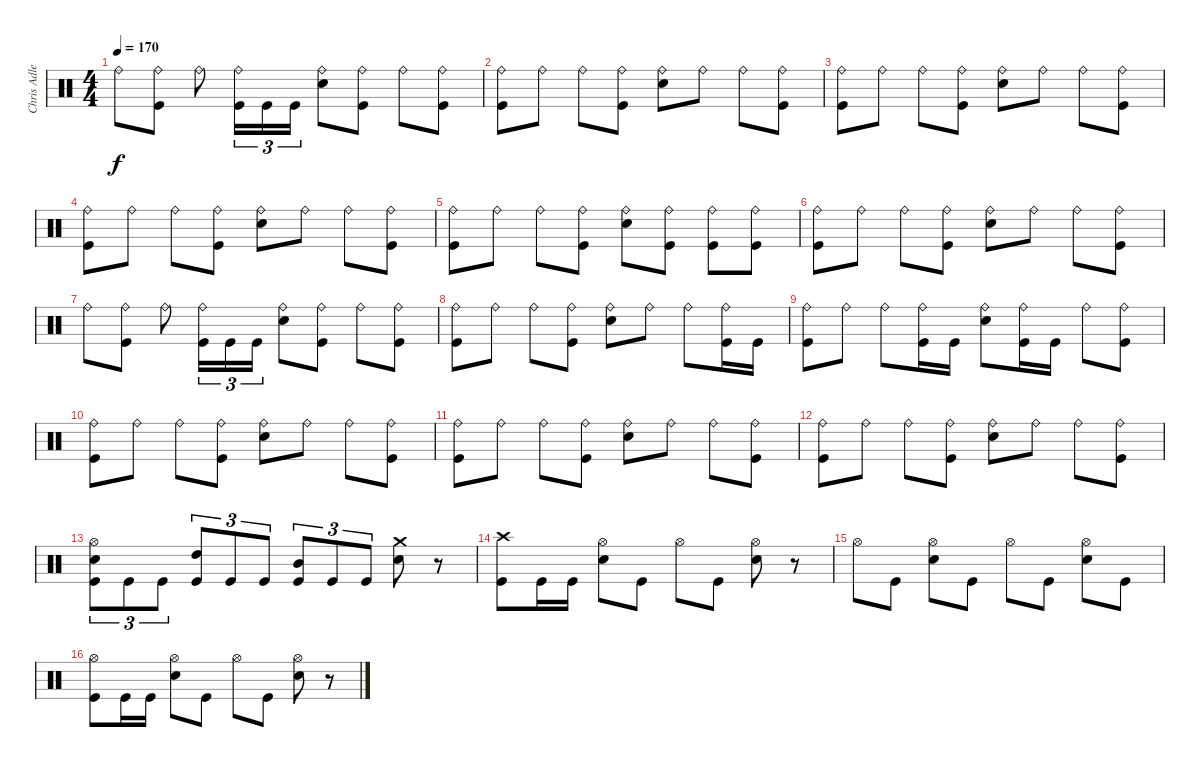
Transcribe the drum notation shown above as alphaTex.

\track ("Chris Adler" "Chris Adle") {instrument percussion}
\staff {score}
\articulation defaults
\ts (4 4)
\tempo 170
\clef neutral
\ks c "Ride (bell)".8{dy f}
("Ride (bell)" "Kick (hit)").8 "Ride (bell)".8 ("Ride (bell)" "Kick (hit)").16{tu (3 2)} "Kick (hit)".16{tu (3 2)} "Kick (hit)".16{tu (3 2)} ("Ride (bell)" "Electric Snare (hit)").8 ("Ride (bell)" "Kick (hit)").8 "Ride (bell)".8 ("Ride (bell)" "Kick (hit)").8 |
("Ride (bell)" "Kick (hit)").8 "Ride (bell)".8 "Ride (bell)".8 ("Ride (bell)" "Kick (hit)").8 ("Ride (bell)" "Electric Snare (hit)").8 "Ride (bell)".8 "Ride (bell)".8 ("Ride (bell)" "Kick (hit)").8 |
("Ride (bell)" "Kick (hit)").8 "Ride (bell)".8 "Ride (bell)".8 ("Ride (bell)" "Kick (hit)").8 ("Ride (bell)" "Electric Snare (hit)").8 "Ride (bell)".8 "Ride (bell)".8 ("Ride (bell)" "Kick (hit)").8 |
("Ride (bell)" "Kick (hit)").8 "Ride (bell)".8 "Ride (bell)".8 ("Ride (bell)" "Kick (hit)").8 ("Ride (bell)" "Electric Snare (hit)").8 "Ride (bell)".8 "Ride (bell)".8 ("Ride (bell)" "Kick (hit)").8 |
("Ride (bell)" "Kick (hit)").8 "Ride (bell)".8 "Ride (bell)".8 ("Ride (bell)" "Kick (hit)").8 ("Ride (bell)" "Electric Snare (hit)").8 ("Ride (bell)" "Kick (hit)").8 ("Ride (bell)" "Kick (hit)").8 ("Ride (bell)" "Kick (hit)").8 |
("Ride (bell)" "Kick (hit)").8 "Ride (bell)".8 "Ride (bell)".8 ("Ride (bell)" "Kick (hit)").8 ("Ride (bell)" "Electric Snare (hit)").8 "Ride (bell)".8 "Ride (bell)".8 ("Ride (bell)" "Kick (hit)").8 |
"Ride (bell)".8 ("Ride (bell)" "Kick (hit)").8 "Ride (bell)".8 ("Ride (bell)" "Kick (hit)").16{tu (3 2)} "Kick (hit)".16{tu (3 2)} "Kick (hit)".16{tu (3 2)} ("Ride (bell)" "Electric Snare (hit)").8 ("Ride (bell)" "Kick (hit)").8 "Ride (bell)".8 ("Ride (bell)" "Kick (hit)").8 |
("Ride (bell)" "Kick (hit)").8 "Ride (bell)".8 "Ride (bell)".8 ("Ride (bell)" "Kick (hit)").8 ("Ride (bell)" "Electric Snare (hit)").8 "Ride (bell)".8 "Ride (bell)".8 ("Ride (bell)" "Kick (hit)").16 "Kick (hit)".16 |
("Ride (bell)" "Kick (hit)").8 "Ride (bell)".8 "Ride (bell)".8 ("Ride (bell)" "Kick (hit)").16 "Kick (hit)".16 ("Ride (bell)" "Electric Snare (hit)").8 ("Ride (bell)" "Kick (hit)").16 "Kick (hit)".16 "Ride (bell)".8 ("Ride (bell)" "Kick (hit)").8 |
("Ride (bell)" "Kick (hit)").8 "Ride (bell)".8 "Ride (bell)".8 ("Ride (bell)" "Kick (hit)").8 ("Ride (bell)" "Electric Snare (hit)").8 "Ride (bell)".8 "Ride (bell)".8 ("Ride (bell)" "Kick (hit)").8 |
("Ride (bell)" "Kick (hit)").8 "Ride (bell)".8 "Ride (bell)".8 ("Ride (bell)" "Kick (hit)").8 ("Ride (bell)" "Electric Snare (hit)").8 "Ride (bell)".8 "Ride (bell)".8 ("Ride (bell)" "Kick (hit)").8 |
("Ride (bell)" "Kick (hit)").8 "Ride (bell)".8 "Ride (bell)".8 ("Ride (bell)" "Kick (hit)").8 ("Ride (bell)" "Electric Snare (hit)").8 "Ride (bell)".8 "Ride (bell)".8 ("Ride (bell)" "Kick (hit)").8 |
("Hi-Hat (open)" "Electric Snare (hit)" "Kick (hit)").8{tu (3 2)} "Kick (hit)".8{tu (3 2)} "Kick (hit)".8{tu (3 2)} ("High Tom (hit)" "Kick (hit)").8{tu (3 2)} "Kick (hit)".8{tu (3 2)} "Kick (hit)".8{tu (3 2)} ("Mid Tom (hit)" "Kick (hit)").8{tu (3 2)} "Kick (hit)".8{tu (3 2)} "Kick (hit)".8{tu (3 2)} ("Crash medium (hit)" "Electric Snare (hit)").8 r.8 |
("Crash high (hit)" "Kick (hit)").8 "Kick (hit)".16 "Kick (hit)".16 ("Hi-Hat (open)" "Electric Snare (hit)").8 "Kick (hit)".8 "Hi-Hat (open)".8 "Kick (hit)".8 ("Hi-Hat (open)" "Electric Snare (hit)").8 r.8 |
"Hi-Hat (open)".8 "Kick (hit)".8 ("Hi-Hat (open)" "Electric Snare (hit)").8 "Kick (hit)".8 "Hi-Hat (open)".8 "Kick (hit)".8 ("Hi-Hat (open)" "Electric Snare (hit)").8 "Kick (hit)".8 |
("Hi-Hat (open)" "Kick (hit)").8 "Kick (hit)".16 "Kick (hit)".16 ("Hi-Hat (open)" "Electric Snare (hit)").8 "Kick (hit)".8 "Hi-Hat (open)".8 "Kick (hit)".8 ("Hi-Hat (open)" "Electric Snare (hit)").8 r.8
